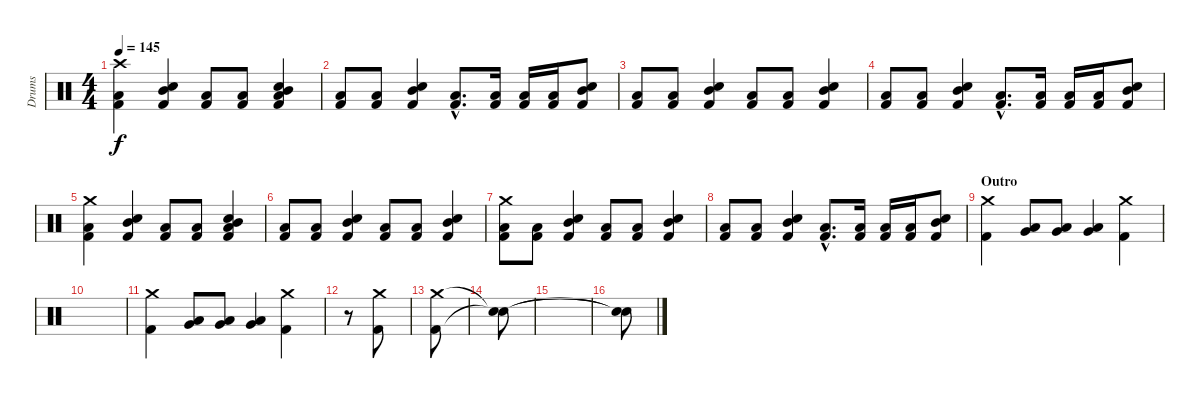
\track ("Drums" "Drums") {instrument percussion}
\staff {score}
\articulation defaults
\ts (4 4)
\tempo 145
\clef neutral
\ks c
("Crash high (hit)" "Low Tom (hit)" "Kick (hit) 2").4{dy f} ("Electric Snare (hit)" "Mid Tom (hit)" "Kick (hit) 2").4 ("Low Tom (hit)" "Kick (hit) 2").8 ("Low Tom (hit)" "Kick (hit) 2").8 ("Electric Snare (hit)" "Mid Tom (hit)" "Low Tom (hit)" "Kick (hit) 2").4 |
("Low Tom (hit)" "Kick (hit) 2").8 ("Low Tom (hit)" "Kick (hit) 2").8 ("Mid Tom (hit)" "Electric Snare (hit)" "Kick (hit) 2").4 ("Low Tom (hit)"{hac} "Kick (hit) 2"{hac}).8{d} ("Low Tom (hit)" "Kick (hit) 2").16 ("Low Tom (hit)" "Kick (hit) 2").16 ("Low Tom (hit)" "Kick (hit) 2").16 ("Mid Tom (hit)" "Electric Snare (hit)" "Kick (hit) 2").8 |
("Low Tom (hit)" "Kick (hit) 2").8 ("Low Tom (hit)" "Kick (hit) 2").8 ("Mid Tom (hit)" "Electric Snare (hit)" "Kick (hit) 2").4 ("Low Tom (hit)" "Kick (hit) 2").8 ("Low Tom (hit)" "Kick (hit) 2").8 ("Mid Tom (hit)" "Electric Snare (hit)" "Kick (hit) 2").4 |
("Low Tom (hit)" "Kick (hit) 2").8 ("Low Tom (hit)" "Kick (hit) 2").8 ("Mid Tom (hit)" "Electric Snare (hit)" "Kick (hit) 2").4 ("Low Tom (hit)"{hac} "Kick (hit) 2"{hac}).8{d} ("Low Tom (hit)" "Kick (hit) 2").16 ("Low Tom (hit)" "Kick (hit) 2").16 ("Low Tom (hit)" "Kick (hit) 2").16 ("Mid Tom (hit)" "Electric Snare (hit)" "Kick (hit) 2").8 |
("Crash medium (hit)" "Low Tom (hit)" "Kick (hit) 2").4 ("Electric Snare (hit)" "Mid Tom (hit)" "Kick (hit) 2").4 ("Low Tom (hit)" "Kick (hit) 2").8 ("Low Tom (hit)" "Kick (hit) 2").8 ("Electric Snare (hit)" "Mid Tom (hit)" "Low Tom (hit)" "Kick (hit) 2").4 |
("Low Tom (hit)" "Kick (hit) 2").8 ("Low Tom (hit)" "Kick (hit) 2").8 ("Mid Tom (hit)" "Electric Snare (hit)" "Kick (hit) 2").4 ("Low Tom (hit)" "Kick (hit) 2").8 ("Low Tom (hit)" "Kick (hit) 2").8 ("Mid Tom (hit)" "Electric Snare (hit)" "Kick (hit) 2").4 |
("Crash medium (hit)" "Low Tom (hit)" "Kick (hit) 2").8 ("Low Tom (hit)" "Kick (hit) 2").8 ("Mid Tom (hit)" "Electric Snare (hit)" "Kick (hit) 2").4 ("Low Tom (hit)" "Kick (hit) 2").8 ("Low Tom (hit)" "Kick (hit) 2").8 ("Mid Tom (hit)" "Electric Snare (hit)" "Kick (hit) 2").4 |
("Low Tom (hit)" "Kick (hit) 2").8 ("Low Tom (hit)" "Kick (hit) 2").8 ("Mid Tom (hit)" "Electric Snare (hit)" "Kick (hit) 2").4 ("Low Tom (hit)"{hac} "Kick (hit) 2"{hac}).8{d} ("Low Tom (hit)" "Kick (hit) 2").16 ("Low Tom (hit)" "Kick (hit) 2").16 ("Low Tom (hit)" "Kick (hit) 2").16 ("Mid Tom (hit)" "Electric Snare (hit)" "Kick (hit) 2").8 |
\section ("" "Outro")
("Crash medium (hit)" "Kick (hit) 2").4 ("Low Tom (hit)" "Very Low Tom (hit)").8 ("Low Tom (hit)" "Very Low Tom (hit)").8 ("Low Tom (hit)" "Very Low Tom (hit)").4 ("Crash medium (hit)" "Kick (hit) 2").4 |
|
("Crash medium (hit)" "Kick (hit) 2").4 ("Low Tom (hit)" "Very Low Tom (hit)").8 ("Low Tom (hit)" "Very Low Tom (hit)").8 ("Low Tom (hit)" "Very Low Tom (hit)").4 ("Crash medium (hit)" "Kick (hit) 2").4 |
r.8 ("Crash medium (hit)" "Kick (hit) 2").8 |
("Crash medium (hit)" "Kick (hit) 2").8{volume 0} |
("Snare (hit)"{t} "Snare (hit)"{t}).8 |
|
("Snare (hit)"{t} "Snare (hit)"{t}).8
